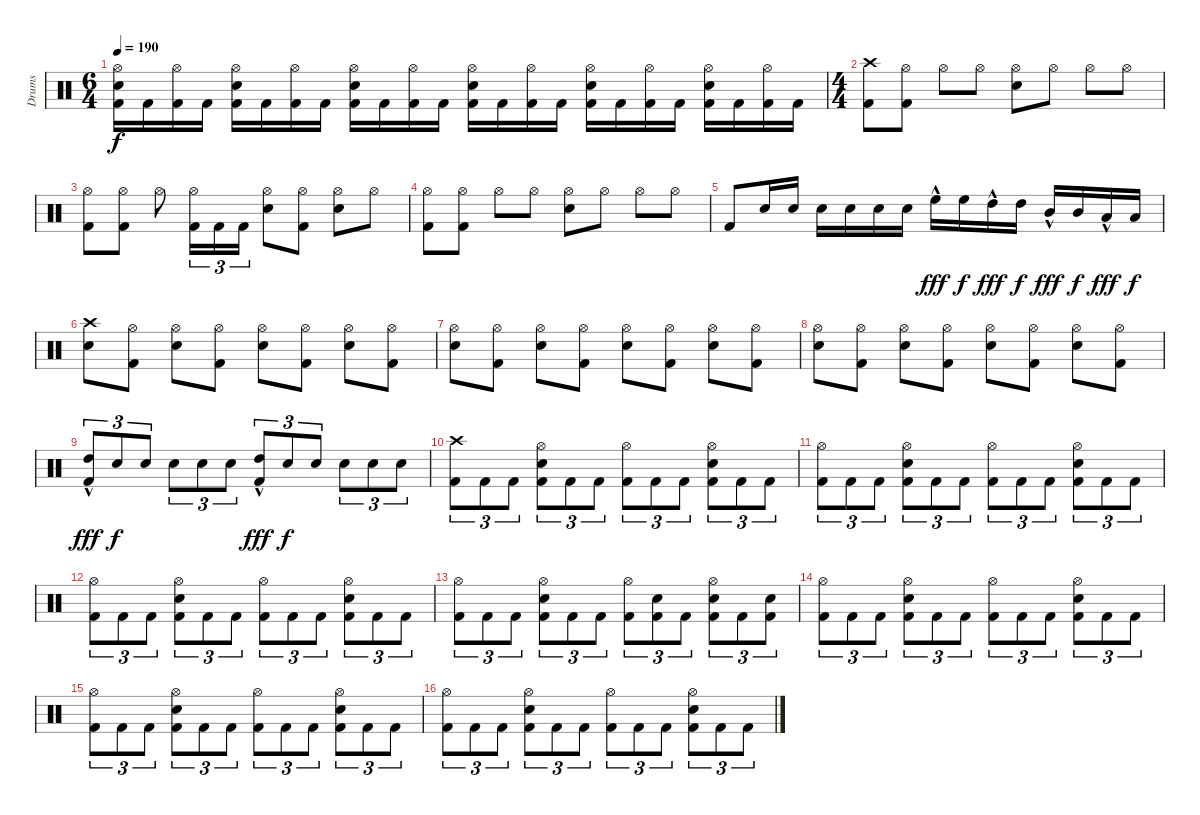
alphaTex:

\track ("Drums" "Drums") {instrument percussion}
\staff {score}
\articulation defaults
\ts (6 4)
\tempo 190
\clef neutral
\ks aminor
("Kick (hit) 2" "Electric Snare (hit)" "Hi-Hat (open)").16{dy f} "Kick (hit) 2".16 ("Kick (hit) 2" "Hi-Hat (open)").16 "Kick (hit) 2".16 ("Kick (hit) 2" "Electric Snare (hit)" "Hi-Hat (open)").16 "Kick (hit) 2".16 ("Kick (hit) 2" "Hi-Hat (open)").16 "Kick (hit) 2".16 ("Kick (hit) 2" "Electric Snare (hit)" "Hi-Hat (open)").16 "Kick (hit) 2".16 ("Kick (hit) 2" "Hi-Hat (open)").16 "Kick (hit) 2".16 ("Kick (hit) 2" "Electric Snare (hit)" "Hi-Hat (open)").16 "Kick (hit) 2".16 ("Kick (hit) 2" "Hi-Hat (open)").16 "Kick (hit) 2".16 ("Kick (hit) 2" "Electric Snare (hit)" "Hi-Hat (open)").16 "Kick (hit) 2".16 ("Kick (hit) 2" "Hi-Hat (open)").16 "Kick (hit) 2".16 ("Kick (hit) 2" "Electric Snare (hit)" "Hi-Hat (open)").16 "Kick (hit) 2".16 ("Kick (hit) 2" "Hi-Hat (open)").16 "Kick (hit) 2".16 |
\ts (4 4)
("Kick (hit) 2" "Crash high (hit)").8 ("Kick (hit) 2" "Hi-Hat (open)").8 "Hi-Hat (open)".8 "Hi-Hat (open)".8 ("Electric Snare (hit)" "Hi-Hat (open)").8 "Hi-Hat (open)".8 "Hi-Hat (open)".8 "Hi-Hat (open)".8 |
("Kick (hit) 2" "Hi-Hat (open)").8 ("Kick (hit) 2" "Hi-Hat (open)").8 "Hi-Hat (open)".8 ("Kick (hit) 2" "Hi-Hat (open)").16{tu (3 2)} "Kick (hit) 2".16{tu (3 2)} "Kick (hit) 2".16{tu (3 2)} ("Electric Snare (hit)" "Hi-Hat (open)").8 ("Kick (hit) 2" "Hi-Hat (open)").8 ("Electric Snare (hit)" "Hi-Hat (open)").8 "Hi-Hat (open)".8 |
("Kick (hit) 2" "Hi-Hat (open)").8 ("Kick (hit) 2" "Hi-Hat (open)").8 "Hi-Hat (open)".8 "Hi-Hat (open)".8 ("Electric Snare (hit)" "Hi-Hat (open)").8 "Hi-Hat (open)".8 "Hi-Hat (open)".8 "Hi-Hat (open)".8 |
"Kick (hit) 2".8 "Electric Snare (hit)".16 "Electric Snare (hit)".16 "Electric Snare (hit)".16 "Electric Snare (hit)".16 "Electric Snare (hit)".16 "Electric Snare (hit)".16 "High Floor Tom (hit)"{hac}.16{dy fff} "High Floor Tom (hit)".16{dy f} "High Tom (hit)"{hac}.16{dy fff} "High Tom (hit)".16{dy f} "Mid Tom (hit)"{hac}.16{dy fff} "Mid Tom (hit)".16{dy f} "Low Tom (hit)"{hac}.16{dy fff} "Low Tom (hit)".16{dy f} |
("Electric Snare (hit)" "Crash high (hit)").8 ("Kick (hit) 2" "Hi-Hat (open)").8 ("Electric Snare (hit)" "Hi-Hat (open)").8 ("Kick (hit) 2" "Hi-Hat (open)").8 ("Electric Snare (hit)" "Hi-Hat (open)").8 ("Kick (hit) 2" "Hi-Hat (open)").8 ("Electric Snare (hit)" "Hi-Hat (open)").8 ("Kick (hit) 2" "Hi-Hat (open)").8 |
("Electric Snare (hit)" "Hi-Hat (open)").8 ("Kick (hit) 2" "Hi-Hat (open)").8 ("Electric Snare (hit)" "Hi-Hat (open)").8 ("Kick (hit) 2" "Hi-Hat (open)").8 ("Electric Snare (hit)" "Hi-Hat (open)").8 ("Kick (hit) 2" "Hi-Hat (open)").8 ("Electric Snare (hit)" "Hi-Hat (open)").8 ("Kick (hit) 2" "Hi-Hat (open)").8 |
("Electric Snare (hit)" "Hi-Hat (open)").8 ("Kick (hit) 2" "Hi-Hat (open)").8 ("Electric Snare (hit)" "Hi-Hat (open)").8 ("Kick (hit) 2" "Hi-Hat (open)").8 ("Electric Snare (hit)" "Hi-Hat (open)").8 ("Kick (hit) 2" "Hi-Hat (open)").8 ("Electric Snare (hit)" "Hi-Hat (open)").8 ("Kick (hit) 2" "Hi-Hat (open)").8 |
("Kick (hit) 2" "High Tom (hit)"{hac}).8{tu (3 2) dy fff} "Electric Snare (hit)".8{tu (3 2) dy f} "Electric Snare (hit)".8{tu (3 2)} "Electric Snare (hit)".8{tu (3 2)} "Electric Snare (hit)".8{tu (3 2)} "Electric Snare (hit)".8{tu (3 2)} ("Kick (hit) 2" "High Tom (hit)"{hac}).8{tu (3 2) dy fff} "Electric Snare (hit)".8{tu (3 2) dy f} "Electric Snare (hit)".8{tu (3 2)} "Electric Snare (hit)".8{tu (3 2)} "Electric Snare (hit)".8{tu (3 2)} "Electric Snare (hit)".8{tu (3 2)} |
("Kick (hit) 2" "Crash high (hit)").8{tu (3 2)} "Kick (hit) 2".8{tu (3 2)} "Kick (hit) 2".8{tu (3 2)} ("Kick (hit) 2" "Electric Snare (hit)" "Hi-Hat (open)").8{tu (3 2)} "Kick (hit) 2".8{tu (3 2)} "Kick (hit) 2".8{tu (3 2)} ("Kick (hit) 2" "Hi-Hat (open)").8{tu (3 2)} "Kick (hit) 2".8{tu (3 2)} "Kick (hit) 2".8{tu (3 2)} ("Kick (hit) 2" "Electric Snare (hit)" "Hi-Hat (open)").8{tu (3 2)} "Kick (hit) 2".8{tu (3 2)} "Kick (hit) 2".8{tu (3 2)} |
("Kick (hit) 2" "Hi-Hat (open)").8{tu (3 2)} "Kick (hit) 2".8{tu (3 2)} "Kick (hit) 2".8{tu (3 2)} ("Kick (hit) 2" "Electric Snare (hit)" "Hi-Hat (open)").8{tu (3 2)} "Kick (hit) 2".8{tu (3 2)} "Kick (hit) 2".8{tu (3 2)} ("Kick (hit) 2" "Hi-Hat (open)").8{tu (3 2)} "Kick (hit) 2".8{tu (3 2)} "Kick (hit) 2".8{tu (3 2)} ("Kick (hit) 2" "Electric Snare (hit)" "Hi-Hat (open)").8{tu (3 2)} "Kick (hit) 2".8{tu (3 2)} "Kick (hit) 2".8{tu (3 2)} |
("Kick (hit) 2" "Hi-Hat (open)").8{tu (3 2)} "Kick (hit) 2".8{tu (3 2)} "Kick (hit) 2".8{tu (3 2)} ("Kick (hit) 2" "Electric Snare (hit)" "Hi-Hat (open)").8{tu (3 2)} "Kick (hit) 2".8{tu (3 2)} "Kick (hit) 2".8{tu (3 2)} ("Kick (hit) 2" "Hi-Hat (open)").8{tu (3 2)} "Kick (hit) 2".8{tu (3 2)} "Kick (hit) 2".8{tu (3 2)} ("Kick (hit) 2" "Electric Snare (hit)" "Hi-Hat (open)").8{tu (3 2)} "Kick (hit) 2".8{tu (3 2)} "Kick (hit) 2".8{tu (3 2)} |
("Kick (hit) 2" "Hi-Hat (open)").8{tu (3 2)} "Kick (hit) 2".8{tu (3 2)} "Kick (hit) 2".8{tu (3 2)} ("Kick (hit) 2" "Electric Snare (hit)" "Hi-Hat (open)").8{tu (3 2)} "Kick (hit) 2".8{tu (3 2)} "Kick (hit) 2".8{tu (3 2)} ("Kick (hit) 2" "Hi-Hat (open)").8{tu (3 2)} ("Kick (hit) 2" "Electric Snare (hit)").8{tu (3 2)} "Kick (hit) 2".8{tu (3 2)} ("Kick (hit) 2" "Electric Snare (hit)" "Hi-Hat (open)").8{tu (3 2)} "Kick (hit) 2".8{tu (3 2)} ("Kick (hit) 2" "Electric Snare (hit)").8{tu (3 2)} |
("Kick (hit) 2" "Hi-Hat (open)").8{tu (3 2)} "Kick (hit) 2".8{tu (3 2)} "Kick (hit) 2".8{tu (3 2)} ("Kick (hit) 2" "Electric Snare (hit)" "Hi-Hat (open)").8{tu (3 2)} "Kick (hit) 2".8{tu (3 2)} "Kick (hit) 2".8{tu (3 2)} ("Kick (hit) 2" "Hi-Hat (open)").8{tu (3 2)} "Kick (hit) 2".8{tu (3 2)} "Kick (hit) 2".8{tu (3 2)} ("Kick (hit) 2" "Electric Snare (hit)" "Hi-Hat (open)").8{tu (3 2)} "Kick (hit) 2".8{tu (3 2)} "Kick (hit) 2".8{tu (3 2)} |
("Kick (hit) 2" "Hi-Hat (open)").8{tu (3 2)} "Kick (hit) 2".8{tu (3 2)} "Kick (hit) 2".8{tu (3 2)} ("Kick (hit) 2" "Electric Snare (hit)" "Hi-Hat (open)").8{tu (3 2)} "Kick (hit) 2".8{tu (3 2)} "Kick (hit) 2".8{tu (3 2)} ("Kick (hit) 2" "Hi-Hat (open)").8{tu (3 2)} "Kick (hit) 2".8{tu (3 2)} "Kick (hit) 2".8{tu (3 2)} ("Kick (hit) 2" "Electric Snare (hit)" "Hi-Hat (open)").8{tu (3 2)} "Kick (hit) 2".8{tu (3 2)} "Kick (hit) 2".8{tu (3 2)} |
("Kick (hit) 2" "Hi-Hat (open)").8{tu (3 2)} "Kick (hit) 2".8{tu (3 2)} "Kick (hit) 2".8{tu (3 2)} ("Kick (hit) 2" "Electric Snare (hit)" "Hi-Hat (open)").8{tu (3 2)} "Kick (hit) 2".8{tu (3 2)} "Kick (hit) 2".8{tu (3 2)} ("Kick (hit) 2" "Hi-Hat (open)").8{tu (3 2)} "Kick (hit) 2".8{tu (3 2)} "Kick (hit) 2".8{tu (3 2)} ("Kick (hit) 2" "Electric Snare (hit)" "Hi-Hat (open)").8{tu (3 2)} "Kick (hit) 2".8{tu (3 2)} "Kick (hit) 2".8{tu (3 2)}
